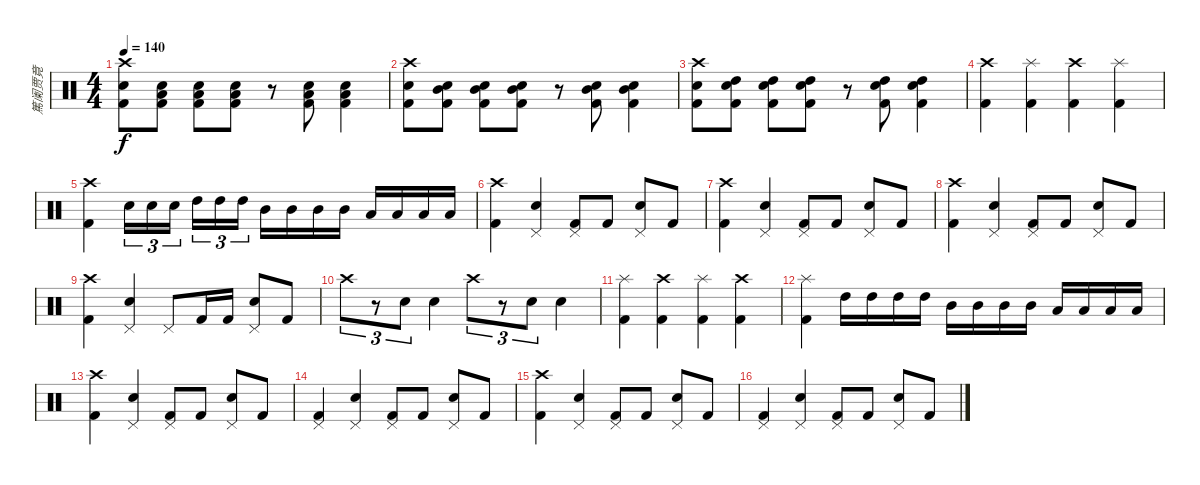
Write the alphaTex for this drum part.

\track ("篤阑贾竟" "篤阑贾竟") {instrument percussion}
\staff {score}
\articulation defaults
\ts (4 4)
\tempo 140
\clef neutral
\ks c
("Crash high (hit)" "Snare (hit) 2" "Kick (hit) 2").8{dy f} ("Low Floor Tom (hit)" "Snare (hit) 2" "Kick (hit) 2").8 ("Low Floor Tom (hit)" "Snare (hit) 2" "Kick (hit) 2").8 ("Low Floor Tom (hit)" "Snare (hit) 2" "Kick (hit) 2").8 r.8 ("Low Floor Tom (hit)" "Snare (hit) 2" "Kick (hit) 2").8 ("Low Floor Tom (hit)" "Snare (hit) 2" "Kick (hit) 2").4 |
("Crash high (hit)" "Snare (hit) 2" "Kick (hit) 2").8 ("Mid Tom (hit)" "Snare (hit) 2" "Kick (hit) 2").8 ("Mid Tom (hit)" "Snare (hit) 2" "Kick (hit) 2").8 ("Mid Tom (hit)" "Snare (hit) 2" "Kick (hit) 2").8 r.8 ("Mid Tom (hit)" "Snare (hit) 2" "Kick (hit) 2").8 ("Mid Tom (hit)" "Snare (hit) 2" "Kick (hit) 2").4 |
("Crash high (hit)" "Snare (hit) 2" "Kick (hit) 2").8 ("High Tom (hit)" "Snare (hit) 2" "Kick (hit) 2").8 ("High Tom (hit)" "Snare (hit) 2" "Kick (hit) 2").8 ("High Tom (hit)" "Snare (hit) 2" "Kick (hit) 2").8 r.8 ("High Tom (hit)" "Snare (hit) 2" "Kick (hit) 2").8 ("High Tom (hit)" "Snare (hit) 2" "Kick (hit) 2").4 |
("Crash high (hit)" "Kick (hit) 2").4 ("Splash (hit)" "Kick (hit) 2").4 ("Crash high (hit)" "Kick (hit) 2").4 ("Splash (hit)" "Kick (hit) 2").4 |
("Crash high (hit)" "Kick (hit) 2").4 "Snare (hit) 2".16{tu (3 2)} "Snare (hit) 2".16{tu (3 2)} "Snare (hit) 2".16{tu (3 2)} "High Tom (hit)".16{tu (3 2)} "High Tom (hit)".16{tu (3 2)} "High Tom (hit)".16{tu (3 2)} "Mid Tom (hit)".16 "Mid Tom (hit)".16 "Mid Tom (hit)".16 "Mid Tom (hit)".16 "Low Floor Tom (hit)".16 "Low Floor Tom (hit)".16 "Low Floor Tom (hit)".16 "Low Floor Tom (hit)".16 |
("Crash high (hit)" "Kick (hit) 2").4 ("Pedal Hi-Hat (hit)" "Snare (hit) 2").4 ("Pedal Hi-Hat (hit)" "Kick (hit) 2").8 "Kick (hit) 2".8 ("Pedal Hi-Hat (hit)" "Snare (hit) 2").8 "Kick (hit) 2".8 |
("Crash high (hit)" "Kick (hit) 2").4 ("Pedal Hi-Hat (hit)" "Snare (hit) 2").4 ("Pedal Hi-Hat (hit)" "Kick (hit) 2").8 "Kick (hit) 2".8 ("Pedal Hi-Hat (hit)" "Snare (hit) 2").8 "Kick (hit) 2".8 |
("Crash high (hit)" "Kick (hit) 2").4 ("Pedal Hi-Hat (hit)" "Snare (hit) 2").4 ("Pedal Hi-Hat (hit)" "Kick (hit) 2").8 "Kick (hit) 2".8 ("Pedal Hi-Hat (hit)" "Snare (hit) 2").8 "Kick (hit) 2".8 |
("Crash high (hit)" "Kick (hit) 2").4 ("Pedal Hi-Hat (hit)" "Snare (hit) 2").4 "Pedal Hi-Hat (hit)".8 "Kick (hit) 2".16 "Kick (hit) 2".16 ("Pedal Hi-Hat (hit)" "Snare (hit) 2").8 "Kick (hit) 2".8 |
"Crash high (hit)".8{tu (3 2)} r.8{tu (3 2)} "Snare (hit) 2".8{tu (3 2)} "Snare (hit) 2".4 "Crash high (hit)".8{tu (3 2)} r.8{tu (3 2)} "Snare (hit) 2".8{tu (3 2)} "Snare (hit) 2".4 |
("Splash (hit)" "Kick (hit) 2").4 ("Crash high (hit)" "Kick (hit) 2").4 ("Splash (hit)" "Kick (hit) 2").4 ("Crash high (hit)" "Kick (hit) 2").4 |
("Splash (hit)" "Kick (hit) 2").4 "High Tom (hit)".16 "High Tom (hit)".16 "High Tom (hit)".16 "High Tom (hit)".16 "Mid Tom (hit)".16 "Mid Tom (hit)".16 "Mid Tom (hit)".16 "Mid Tom (hit)".16 "Low Floor Tom (hit)".16 "Low Floor Tom (hit)".16 "Low Floor Tom (hit)".16 "Low Floor Tom (hit)".16 |
("Crash high (hit)" "Kick (hit) 2").4 ("Pedal Hi-Hat (hit)" "Snare (hit) 2").4 ("Pedal Hi-Hat (hit)" "Kick (hit) 2").8 "Kick (hit) 2".8 ("Pedal Hi-Hat (hit)" "Snare (hit) 2").8 "Kick (hit) 2".8 |
("Pedal Hi-Hat (hit)" "Kick (hit) 2").4 ("Pedal Hi-Hat (hit)" "Snare (hit) 2").4 ("Pedal Hi-Hat (hit)" "Kick (hit) 2").8 "Kick (hit) 2".8 ("Pedal Hi-Hat (hit)" "Snare (hit) 2").8 "Kick (hit) 2".8 |
("Crash high (hit)" "Kick (hit) 2").4 ("Pedal Hi-Hat (hit)" "Snare (hit) 2").4 ("Pedal Hi-Hat (hit)" "Kick (hit) 2").8 "Kick (hit) 2".8 ("Pedal Hi-Hat (hit)" "Snare (hit) 2").8 "Kick (hit) 2".8 |
("Pedal Hi-Hat (hit)" "Kick (hit) 2").4 ("Pedal Hi-Hat (hit)" "Snare (hit) 2").4 ("Pedal Hi-Hat (hit)" "Kick (hit) 2").8 "Kick (hit) 2".8 ("Pedal Hi-Hat (hit)" "Snare (hit) 2").8 "Kick (hit) 2".8
